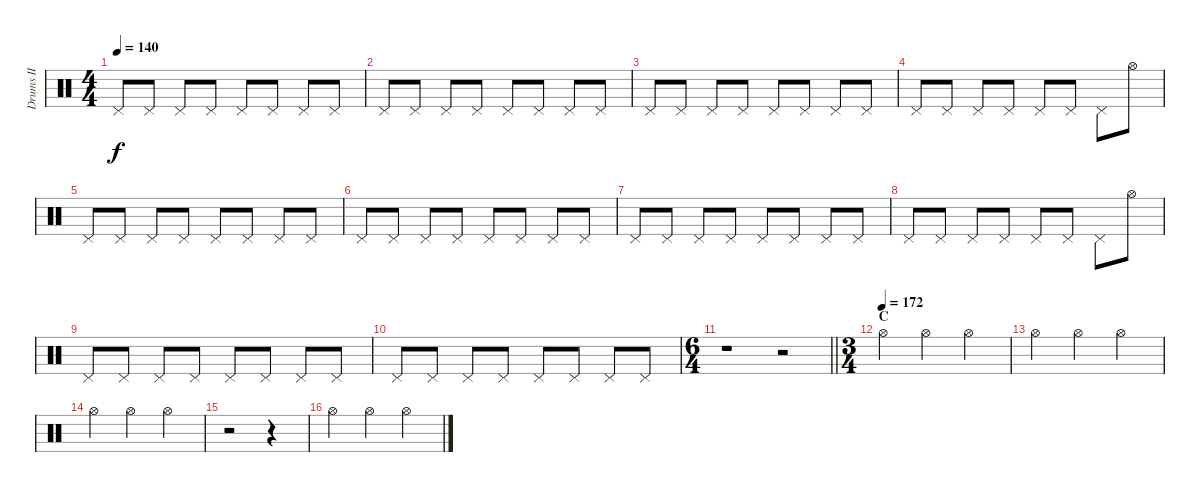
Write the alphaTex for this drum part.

\track ("Drums II" "Drums II") {instrument percussion}
\staff {score}
\articulation defaults
\ts (4 4)
\tempo 140
\clef neutral
\ks c "Pedal Hi-Hat (hit)".8{dy f} "Pedal Hi-Hat (hit)".8 "Pedal Hi-Hat (hit)".8 "Pedal Hi-Hat (hit)".8 "Pedal Hi-Hat (hit)".8 "Pedal Hi-Hat (hit)".8 "Pedal Hi-Hat (hit)".8 "Pedal Hi-Hat (hit)".8
|
"Pedal Hi-Hat (hit)".8 "Pedal Hi-Hat (hit)".8 "Pedal Hi-Hat (hit)".8 "Pedal Hi-Hat (hit)".8 "Pedal Hi-Hat (hit)".8 "Pedal Hi-Hat (hit)".8 "Pedal Hi-Hat (hit)".8 "Pedal Hi-Hat (hit)".8 |
"Pedal Hi-Hat (hit)".8 "Pedal Hi-Hat (hit)".8 "Pedal Hi-Hat (hit)".8 "Pedal Hi-Hat (hit)".8 "Pedal Hi-Hat (hit)".8 "Pedal Hi-Hat (hit)".8 "Pedal Hi-Hat (hit)".8 "Pedal Hi-Hat (hit)".8 |
"Pedal Hi-Hat (hit)".8 "Pedal Hi-Hat (hit)".8 "Pedal Hi-Hat (hit)".8 "Pedal Hi-Hat (hit)".8 "Pedal Hi-Hat (hit)".8 "Pedal Hi-Hat (hit)".8 "Pedal Hi-Hat (hit)".8 "Hi-Hat (open)".8 |
"Pedal Hi-Hat (hit)".8 "Pedal Hi-Hat (hit)".8 "Pedal Hi-Hat (hit)".8 "Pedal Hi-Hat (hit)".8 "Pedal Hi-Hat (hit)".8 "Pedal Hi-Hat (hit)".8 "Pedal Hi-Hat (hit)".8 "Pedal Hi-Hat (hit)".8 |
"Pedal Hi-Hat (hit)".8 "Pedal Hi-Hat (hit)".8 "Pedal Hi-Hat (hit)".8 "Pedal Hi-Hat (hit)".8 "Pedal Hi-Hat (hit)".8 "Pedal Hi-Hat (hit)".8 "Pedal Hi-Hat (hit)".8 "Pedal Hi-Hat (hit)".8 |
"Pedal Hi-Hat (hit)".8 "Pedal Hi-Hat (hit)".8 "Pedal Hi-Hat (hit)".8 "Pedal Hi-Hat (hit)".8 "Pedal Hi-Hat (hit)".8 "Pedal Hi-Hat (hit)".8 "Pedal Hi-Hat (hit)".8 "Pedal Hi-Hat (hit)".8 |
"Pedal Hi-Hat (hit)".8 "Pedal Hi-Hat (hit)".8 "Pedal Hi-Hat (hit)".8 "Pedal Hi-Hat (hit)".8 "Pedal Hi-Hat (hit)".8 "Pedal Hi-Hat (hit)".8 "Pedal Hi-Hat (hit)".8 "Hi-Hat (open)".8 |
"Pedal Hi-Hat (hit)".8 "Pedal Hi-Hat (hit)".8 "Pedal Hi-Hat (hit)".8 "Pedal Hi-Hat (hit)".8 "Pedal Hi-Hat (hit)".8 "Pedal Hi-Hat (hit)".8 "Pedal Hi-Hat (hit)".8 "Pedal Hi-Hat (hit)".8 |
"Pedal Hi-Hat (hit)".8 "Pedal Hi-Hat (hit)".8 "Pedal Hi-Hat (hit)".8 "Pedal Hi-Hat (hit)".8 "Pedal Hi-Hat (hit)".8 "Pedal Hi-Hat (hit)".8 "Pedal Hi-Hat (hit)".8 "Pedal Hi-Hat (hit)".8 |
\ts (6 4)
\barLineRight lightlight
r.1 r.2 |
\ts (3 4)
\section ("" "C")
\tempo (172)
"Hi-Hat (open)".4 "Hi-Hat (open)".4 "Hi-Hat (open)".4 |
"Hi-Hat (open)".4 "Hi-Hat (open)".4 "Hi-Hat (open)".4 |
"Hi-Hat (open)".4 "Hi-Hat (open)".4 "Hi-Hat (open)".4 |
r.2 r.4 |
"Hi-Hat (open)".4 "Hi-Hat (open)".4 "Hi-Hat (open)".4
